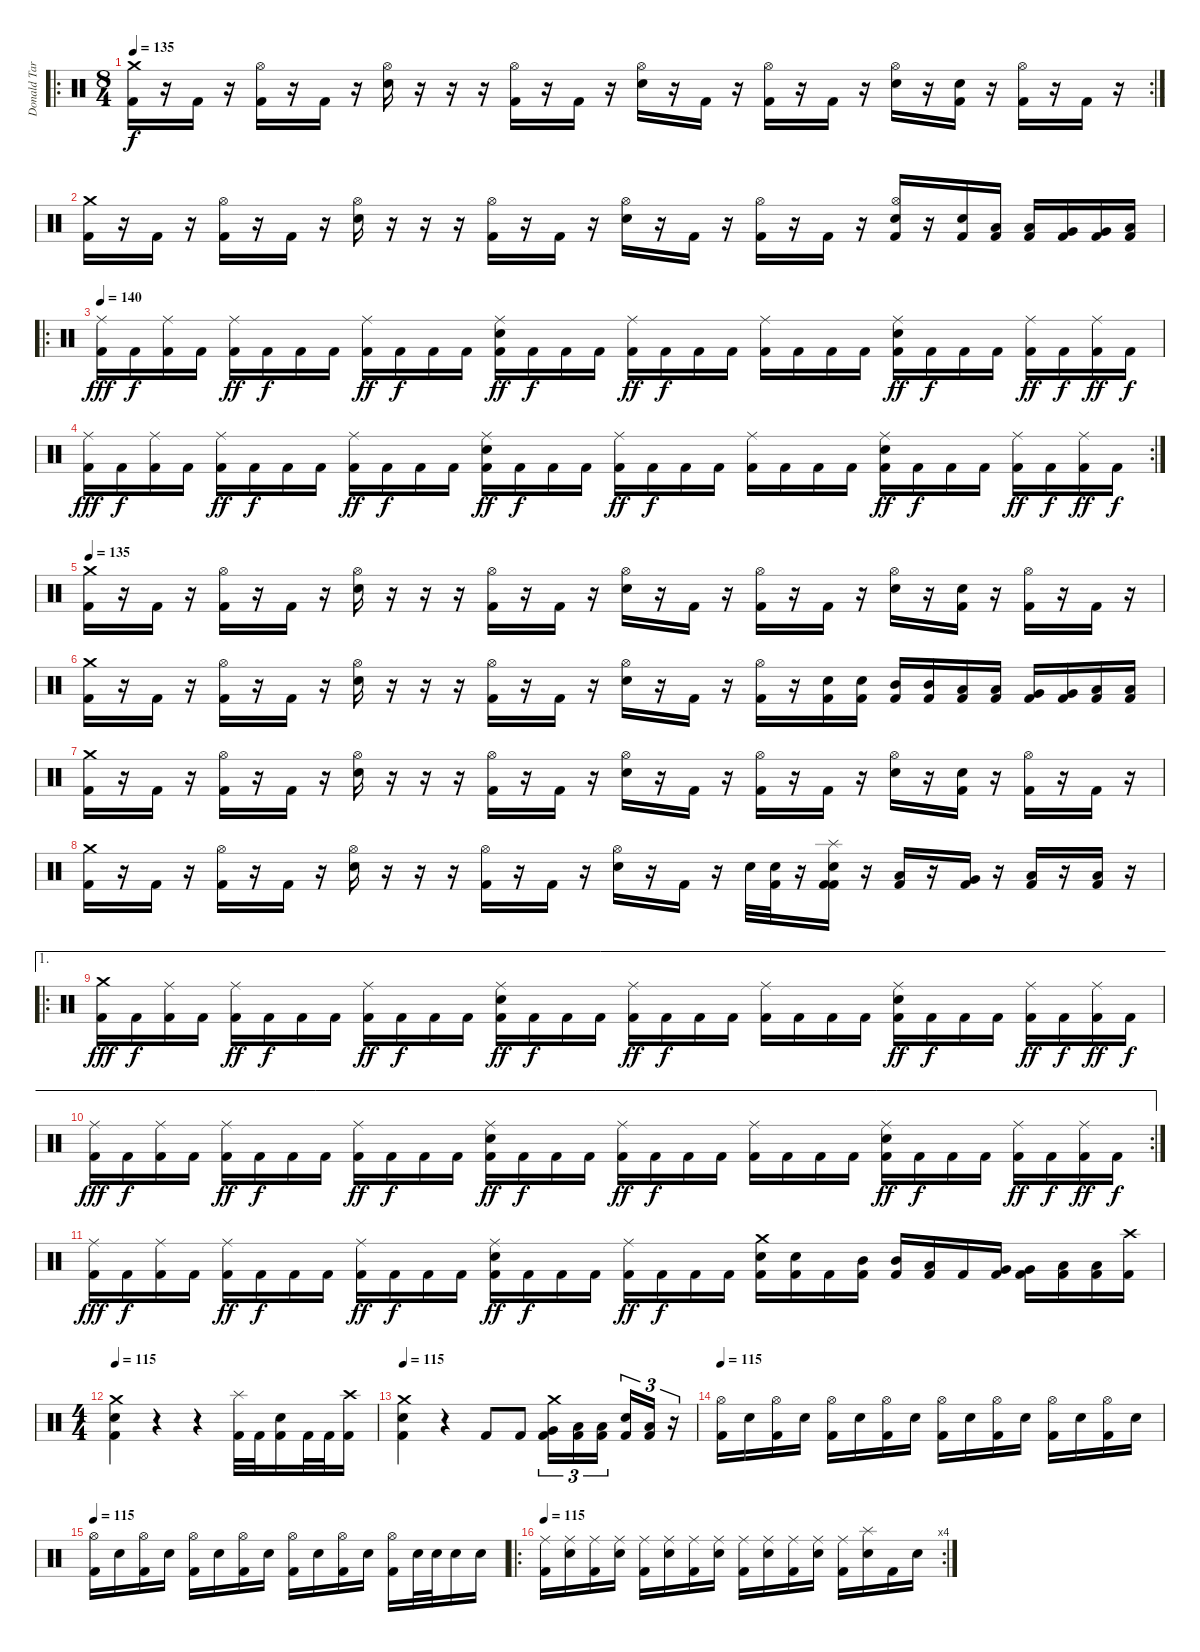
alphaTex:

\track ("Donald Tardy" "Donald Tar") {instrument percussion}
\staff {score}
\articulation defaults
\ro
\rc 2
\ts (8 4)
\tempo 135
\clef neutral
\ks c
("Crash medium (hit)" "Kick (hit) 2").16{dy f} r.16 "Kick (hit) 2".16 r.16 ("Hi-Hat (open)" "Kick (hit) 2").16 r.16 "Kick (hit) 2".16 r.16 ("Hi-Hat (open)" "Electric Snare (hit)").16 r.16 r.16 r.16 ("Hi-Hat (open)" "Kick (hit) 2").16 r.16 "Kick (hit) 2".16 r.16 ("Hi-Hat (open)" "Electric Snare (hit)").16 r.16 "Kick (hit) 2".16 r.16 ("Hi-Hat (open)" "Kick (hit) 2").16 r.16 "Kick (hit) 2".16 r.16 ("Hi-Hat (open)" "Electric Snare (hit)").16 r.16 ("Electric Snare (hit)" "Kick (hit) 2").16 r.16 ("Hi-Hat (open)" "Kick (hit) 2").16 r.16 "Kick (hit) 2".16 r.16 |
("Crash medium (hit)" "Kick (hit) 2").16 r.16 "Kick (hit) 2".16 r.16 ("Hi-Hat (open)" "Kick (hit) 2").16 r.16 "Kick (hit) 2".16 r.16 ("Hi-Hat (open)" "Electric Snare (hit)").16 r.16 r.16 r.16 ("Hi-Hat (open)" "Kick (hit) 2").16 r.16 "Kick (hit) 2".16 r.16 ("Hi-Hat (open)" "Electric Snare (hit)").16 r.16 "Kick (hit) 2".16 r.16 ("Hi-Hat (open)" "Kick (hit) 2").16 r.16 "Kick (hit) 2".16 r.16 ("Hi-Hat (open)" "Electric Snare (hit)" "Kick (hit) 2").16 r.16 ("Electric Snare (hit)" "Kick (hit) 2").16 ("Low Tom (hit)" "Kick (hit) 2").16 ("Low Tom (hit)" "Kick (hit) 2").16 ("Very Low Tom (hit)" "Kick (hit) 2").16 ("Very Low Tom (hit)" "Kick (hit) 2").16 ("Low Floor Tom (hit)" "Kick (hit) 2").16 |
\ro
\tempo 140
("Ride (middle)" "Kick (hit) 2").16{dy fff} "Kick (hit) 2".16{dy f} ("Ride (middle)" "Kick (hit) 2").16 "Kick (hit) 2".16 ("Ride (middle)" "Kick (hit) 2").16{dy ff} "Kick (hit) 2".16{dy f} "Kick (hit) 2".16 "Kick (hit) 2".16 ("Ride (middle)" "Kick (hit) 2").16{dy ff} "Kick (hit) 2".16{dy f} "Kick (hit) 2".16 "Kick (hit) 2".16 ("Ride (middle)" "Electric Snare (hit)" "Kick (hit) 2").16{dy ff} "Kick (hit) 2".16{dy f} "Kick (hit) 2".16 "Kick (hit) 2".16 ("Ride (middle)" "Kick (hit) 2").16{dy ff} "Kick (hit) 2".16{dy f} "Kick (hit) 2".16 "Kick (hit) 2".16 ("Ride (middle)" "Kick (hit) 2").16 "Kick (hit) 2".16 "Kick (hit) 2".16 "Kick (hit) 2".16 ("Ride (middle)" "Electric Snare (hit)" "Kick (hit) 2").16{dy ff} "Kick (hit) 2".16{dy f} "Kick (hit) 2".16 "Kick (hit) 2".16 ("Ride (middle)" "Kick (hit) 2").16{dy ff} "Kick (hit) 2".16{dy f} ("Ride (middle)" "Kick (hit) 2").16{dy ff} "Kick (hit) 2".16{dy f} |
\rc 2
("Ride (middle)" "Kick (hit) 2").16{dy fff} "Kick (hit) 2".16{dy f} ("Ride (middle)" "Kick (hit) 2").16 "Kick (hit) 2".16 ("Ride (middle)" "Kick (hit) 2").16{dy ff} "Kick (hit) 2".16{dy f} "Kick (hit) 2".16 "Kick (hit) 2".16 ("Ride (middle)" "Kick (hit) 2").16{dy ff} "Kick (hit) 2".16{dy f} "Kick (hit) 2".16 "Kick (hit) 2".16 ("Ride (middle)" "Electric Snare (hit)" "Kick (hit) 2").16{dy ff} "Kick (hit) 2".16{dy f} "Kick (hit) 2".16 "Kick (hit) 2".16 ("Ride (middle)" "Kick (hit) 2").16{dy ff} "Kick (hit) 2".16{dy f} "Kick (hit) 2".16 "Kick (hit) 2".16 ("Ride (middle)" "Kick (hit) 2").16 "Kick (hit) 2".16 "Kick (hit) 2".16 "Kick (hit) 2".16 ("Ride (middle)" "Electric Snare (hit)" "Kick (hit) 2").16{dy ff} "Kick (hit) 2".16{dy f} "Kick (hit) 2".16 "Kick (hit) 2".16 ("Ride (middle)" "Kick (hit) 2").16{dy ff} "Kick (hit) 2".16{dy f} ("Ride (middle)" "Kick (hit) 2").16{dy ff} "Kick (hit) 2".16{dy f} |
\tempo 135
("Crash medium (hit)" "Kick (hit) 2").16 r.16 "Kick (hit) 2".16 r.16 ("Hi-Hat (open)" "Kick (hit) 2").16 r.16 "Kick (hit) 2".16 r.16 ("Hi-Hat (open)" "Electric Snare (hit)").16 r.16 r.16 r.16 ("Hi-Hat (open)" "Kick (hit) 2").16 r.16 "Kick (hit) 2".16 r.16 ("Hi-Hat (open)" "Electric Snare (hit)").16 r.16 "Kick (hit) 2".16 r.16 ("Hi-Hat (open)" "Kick (hit) 2").16 r.16 "Kick (hit) 2".16 r.16 ("Hi-Hat (open)" "Electric Snare (hit)").16 r.16 ("Electric Snare (hit)" "Kick (hit) 2").16 r.16 ("Hi-Hat (open)" "Kick (hit) 2").16 r.16 "Kick (hit) 2".16 r.16 |
("Crash medium (hit)" "Kick (hit) 2").16 r.16 "Kick (hit) 2".16 r.16 ("Hi-Hat (open)" "Kick (hit) 2").16 r.16 "Kick (hit) 2".16 r.16 ("Hi-Hat (open)" "Electric Snare (hit)").16 r.16 r.16 r.16 ("Hi-Hat (open)" "Kick (hit) 2").16 r.16 "Kick (hit) 2".16 r.16 ("Hi-Hat (open)" "Electric Snare (hit)").16 r.16 "Kick (hit) 2".16 r.16 ("Hi-Hat (open)" "Kick (hit) 2").16 r.16 ("Electric Snare (hit)" "Kick (hit) 2").16 ("Electric Snare (hit)" "Kick (hit) 2").16 ("Mid Tom (hit)" "Kick (hit) 2").16 ("Mid Tom (hit)" "Kick (hit) 2").16 ("Low Tom (hit)" "Kick (hit) 2").16 ("Low Tom (hit)" "Kick (hit) 2").16 ("Very Low Tom (hit)" "Kick (hit) 2").16 ("Very Low Tom (hit)" "Kick (hit) 2").16 ("Low Floor Tom (hit)" "Kick (hit) 2").16 ("Low Floor Tom (hit)" "Kick (hit) 2").16 |
("Crash medium (hit)" "Kick (hit) 2").16 r.16 "Kick (hit) 2".16 r.16 ("Hi-Hat (open)" "Kick (hit) 2").16 r.16 "Kick (hit) 2".16 r.16 ("Hi-Hat (open)" "Electric Snare (hit)").16 r.16 r.16 r.16 ("Hi-Hat (open)" "Kick (hit) 2").16 r.16 "Kick (hit) 2".16 r.16 ("Hi-Hat (open)" "Electric Snare (hit)").16 r.16 "Kick (hit) 2".16 r.16 ("Hi-Hat (open)" "Kick (hit) 2").16 r.16 "Kick (hit) 2".16 r.16 ("Hi-Hat (open)" "Electric Snare (hit)").16 r.16 ("Electric Snare (hit)" "Kick (hit) 2").16 r.16 ("Hi-Hat (open)" "Kick (hit) 2").16 r.16 "Kick (hit) 2".16 r.16 |
("Crash medium (hit)" "Kick (hit) 2").16 r.16 "Kick (hit) 2".16 r.16 ("Hi-Hat (open)" "Kick (hit) 2").16 r.16 "Kick (hit) 2".16 r.16 ("Hi-Hat (open)" "Electric Snare (hit)").16 r.16 r.16 r.16 ("Hi-Hat (open)" "Kick (hit) 2").16 r.16 "Kick (hit) 2".16 r.16 ("Hi-Hat (open)" "Electric Snare (hit)").16 r.16 "Kick (hit) 2".16 r.16 "Electric Snare (hit)".32 ("Electric Snare (hit)" "Kick (hit) 2").32 r.16 ("Splash (hit)" "Electric Snare (hit)" "Kick (hit) 2" "Kick (hit) 2").16 r.16 ("Low Tom (hit)" "Kick (hit) 2").16 r.16 ("Very Low Tom (hit)" "Kick (hit) 2").16 r.16 ("Low Floor Tom (hit)" "Kick (hit) 2").16 r.16 ("Low Floor Tom (hit)" "Kick (hit) 2").16 r.16 |
\ae 1
\ro
("Crash medium (hit)" "Kick (hit) 2").16{dy fff} "Kick (hit) 2".16{dy f} ("Ride (middle)" "Kick (hit) 2").16 "Kick (hit) 2".16 ("Ride (middle)" "Kick (hit) 2").16{dy ff} "Kick (hit) 2".16{dy f} "Kick (hit) 2".16 "Kick (hit) 2".16 ("Ride (middle)" "Kick (hit) 2").16{dy ff} "Kick (hit) 2".16{dy f} "Kick (hit) 2".16 "Kick (hit) 2".16 ("Ride (middle)" "Electric Snare (hit)" "Kick (hit) 2").16{dy ff} "Kick (hit) 2".16{dy f} "Kick (hit) 2".16 "Kick (hit) 2".16 ("Ride (middle)" "Kick (hit) 2").16{dy ff} "Kick (hit) 2".16{dy f} "Kick (hit) 2".16 "Kick (hit) 2".16 ("Ride (middle)" "Kick (hit) 2").16 "Kick (hit) 2".16 "Kick (hit) 2".16 "Kick (hit) 2".16 ("Ride (middle)" "Electric Snare (hit)" "Kick (hit) 2").16{dy ff} "Kick (hit) 2".16{dy f} "Kick (hit) 2".16 "Kick (hit) 2".16 ("Ride (middle)" "Kick (hit) 2").16{dy ff} "Kick (hit) 2".16{dy f} ("Ride (middle)" "Kick (hit) 2").16{dy ff} "Kick (hit) 2".16{dy f} |
\ae 1
\rc 2
("Ride (middle)" "Kick (hit) 2").16{dy fff} "Kick (hit) 2".16{dy f} ("Ride (middle)" "Kick (hit) 2").16 "Kick (hit) 2".16 ("Ride (middle)" "Kick (hit) 2").16{dy ff} "Kick (hit) 2".16{dy f} "Kick (hit) 2".16 "Kick (hit) 2".16 ("Ride (middle)" "Kick (hit) 2").16{dy ff} "Kick (hit) 2".16{dy f} "Kick (hit) 2".16 "Kick (hit) 2".16 ("Ride (middle)" "Electric Snare (hit)" "Kick (hit) 2").16{dy ff} "Kick (hit) 2".16{dy f} "Kick (hit) 2".16 "Kick (hit) 2".16 ("Ride (middle)" "Kick (hit) 2").16{dy ff} "Kick (hit) 2".16{dy f} "Kick (hit) 2".16 "Kick (hit) 2".16 ("Ride (middle)" "Kick (hit) 2").16 "Kick (hit) 2".16 "Kick (hit) 2".16 "Kick (hit) 2".16 ("Ride (middle)" "Electric Snare (hit)" "Kick (hit) 2").16{dy ff} "Kick (hit) 2".16{dy f} "Kick (hit) 2".16 "Kick (hit) 2".16 ("Ride (middle)" "Kick (hit) 2").16{dy ff} "Kick (hit) 2".16{dy f} ("Ride (middle)" "Kick (hit) 2").16{dy ff} "Kick (hit) 2".16{dy f} |
("Ride (middle)" "Kick (hit) 2").16{dy fff} "Kick (hit) 2".16{dy f} ("Ride (middle)" "Kick (hit) 2").16 "Kick (hit) 2".16 ("Ride (middle)" "Kick (hit) 2").16{dy ff} "Kick (hit) 2".16{dy f} "Kick (hit) 2".16 "Kick (hit) 2".16 ("Ride (middle)" "Kick (hit) 2").16{dy ff} "Kick (hit) 2".16{dy f} "Kick (hit) 2".16 "Kick (hit) 2".16 ("Ride (middle)" "Electric Snare (hit)" "Kick (hit) 2").16{dy ff} "Kick (hit) 2".16{dy f} "Kick (hit) 2".16 "Kick (hit) 2".16 ("Ride (middle)" "Kick (hit) 2").16{dy ff} "Kick (hit) 2".16{dy f} "Kick (hit) 2".16 "Kick (hit) 2".16 ("Crash medium (hit)" "Electric Snare (hit)" "Kick (hit) 2").16 ("Electric Snare (hit)" "Kick (hit) 2").16 "Kick (hit) 2".16 ("Mid Tom (hit)" "Kick (hit) 2").16 ("Mid Tom (hit)" "Kick (hit) 2").16 ("Low Tom (hit)" "Kick (hit) 2").16 "Kick (hit) 2".16 ("Very Low Tom (hit)" "Kick (hit) 2").16 ("Very Low Tom (hit)" "Kick (hit) 2").16 ("Low Floor Tom (hit)" "Kick (hit) 2").16 ("Low Floor Tom (hit)" "Kick (hit) 2").16 ("Crash high (hit)" "Kick (hit) 2").16 |
\ts (4 4)
\tempo 115
("Crash medium (hit)" "Electric Snare (hit)" "Kick (hit) 2").4 r.4 r.4 ("Splash (hit)" "Kick (hit) 2").32 "Kick (hit) 2".32 ("Electric Snare (hit)" "Kick (hit) 2").16 "Kick (hit) 2".32 "Kick (hit) 2".32 ("Crash high (hit)" "Kick (hit) 2").16 |
\tempo 115
("Crash medium (hit)" "Electric Snare (hit)" "Kick (hit) 2").4 r.4 "Kick (hit) 2".8 "Kick (hit) 2".8 ("Crash medium (hit)" "Very Low Tom (hit)" "Kick (hit) 2").16{tu (3 2)} ("Low Tom (hit)" "Kick (hit) 2").16{tu (3 2)} ("Low Floor Tom (hit)" "Kick (hit) 2").16{tu (3 2)} ("Electric Snare (hit)" "Kick (hit) 2").16{tu (3 2)} ("Low Floor Tom (hit)" "Kick (hit) 2").16{tu (3 2)} r.16{tu (3 2)} |
\tempo 115
("Hi-Hat (open)" "Kick (hit) 2").16 "Electric Snare (hit)".16 ("Hi-Hat (open)" "Kick (hit) 2").16 "Electric Snare (hit)".16 ("Hi-Hat (open)" "Kick (hit) 2").16 "Electric Snare (hit)".16 ("Hi-Hat (open)" "Kick (hit) 2").16 "Electric Snare (hit)".16 ("Hi-Hat (open)" "Kick (hit) 2").16 "Electric Snare (hit)".16 ("Hi-Hat (open)" "Kick (hit) 2").16 "Electric Snare (hit)".16 ("Hi-Hat (open)" "Kick (hit) 2").16 "Electric Snare (hit)".16 ("Hi-Hat (open)" "Kick (hit) 2").16 "Electric Snare (hit)".16 |
\tempo 115
("Hi-Hat (open)" "Kick (hit) 2").16 "Electric Snare (hit)".16 ("Hi-Hat (open)" "Kick (hit) 2").16 "Electric Snare (hit)".16 ("Hi-Hat (open)" "Kick (hit) 2").16 "Electric Snare (hit)".16 ("Hi-Hat (open)" "Kick (hit) 2").16 "Electric Snare (hit)".16 ("Hi-Hat (open)" "Kick (hit) 2").16 "Electric Snare (hit)".16 ("Hi-Hat (open)" "Kick (hit) 2").16 "Electric Snare (hit)".16 ("Hi-Hat (open)" "Kick (hit) 2").16 "Electric Snare (hit)".32 "Electric Snare (hit)".32 "Electric Snare (hit)".16 "Electric Snare (hit)".16 |
\ro
\rc 4
\tempo 115
("Ride (middle)" "Kick (hit) 2").16 ("Ride (middle)" "Electric Snare (hit)").16 ("Ride (middle)" "Kick (hit) 2").16 ("Ride (middle)" "Electric Snare (hit)").16 ("Ride (middle)" "Kick (hit) 2").16 ("Ride (middle)" "Electric Snare (hit)").16 ("Ride (middle)" "Kick (hit) 2").16 ("Ride (middle)" "Electric Snare (hit)").16 ("Ride (middle)" "Kick (hit) 2").16 ("Ride (middle)" "Electric Snare (hit)").16 ("Ride (middle)" "Kick (hit) 2").16 ("Ride (middle)" "Electric Snare (hit)").16 ("Ride (middle)" "Kick (hit) 2").16 ("Splash (hit)" "Electric Snare (hit)").16 "Kick (hit) 2".16 "Electric Snare (hit)".16
